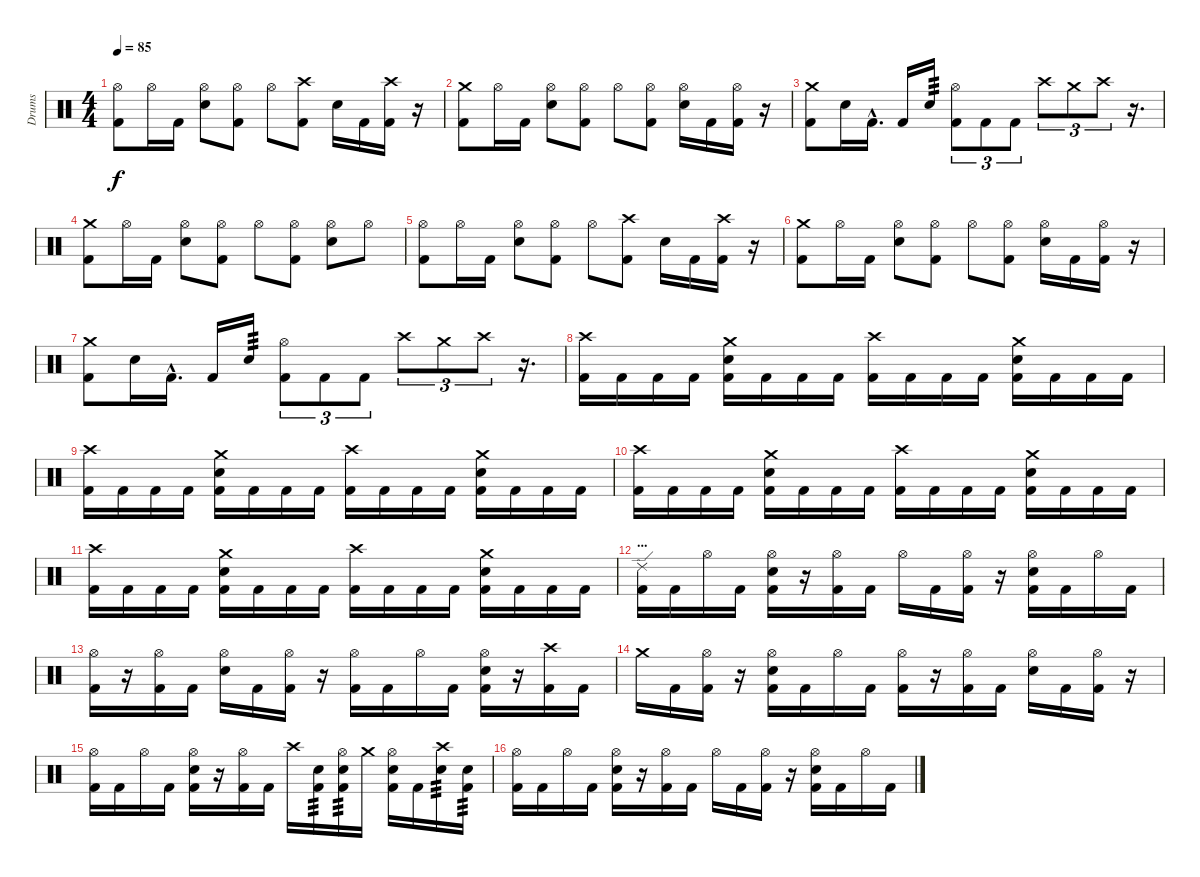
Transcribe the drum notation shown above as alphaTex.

\track ("Drums" "Drums") {instrument percussion}
\staff {score}
\articulation defaults
\ts (4 4)
\tempo 85
\clef neutral
\ks c
("Hi-Hat (open)" "Kick (hit) 2").8{dy f} "Hi-Hat (open)".16 "Kick (hit) 2".16 ("Hi-Hat (open)" "Snare (hit) 2").8 ("Hi-Hat (open)" "Kick (hit) 2").8 "Hi-Hat (open)".8 ("Crash high (hit)" "Kick (hit) 2").8 "Snare (hit) 2".16 "Kick (hit) 2".16 ("Crash high (hit)" "Kick (hit) 2").16 r.16 |
("Crash medium (hit)" "Kick (hit) 2").8 "Hi-Hat (open)".16 "Kick (hit) 2".16 ("Hi-Hat (open)" "Snare (hit) 2").8 ("Hi-Hat (open)" "Kick (hit) 2").8 "Hi-Hat (open)".8 ("Hi-Hat (open)" "Kick (hit) 2").8 ("Hi-Hat (open)" "Snare (hit) 2").16 "Kick (hit) 2".16 ("Hi-Hat (open)" "Kick (hit) 2").16 r.16 |
("Crash medium (hit)" "Kick (hit) 2").8 "Snare (hit) 2".16 "Kick (hit) 2"{hac}.16{d} "Kick (hit) 2".16 "Snare (hit) 2".16{tp 3} ("Hi-Hat (open)" "Kick (hit) 2").8{tu (3 2)} "Kick (hit) 2".8{tu (3 2)} "Kick (hit) 2".8{tu (3 2)} "Crash high (hit)".8{tu (3 2)} "Crash medium (hit)".8{tu (3 2)} "Crash high (hit)".8{tu (3 2)} r.16{d} |
("Crash medium (hit)" "Kick (hit) 2").8 "Hi-Hat (open)".16 "Kick (hit) 2".16 ("Hi-Hat (open)" "Snare (hit) 2").8 ("Hi-Hat (open)" "Kick (hit) 2").8 "Hi-Hat (open)".8 ("Hi-Hat (open)" "Kick (hit) 2").8 ("Hi-Hat (open)" "Snare (hit) 2").8 "Hi-Hat (open)".8 |
("Hi-Hat (open)" "Kick (hit) 2").8 "Hi-Hat (open)".16 "Kick (hit) 2".16 ("Hi-Hat (open)" "Snare (hit) 2").8 ("Hi-Hat (open)" "Kick (hit) 2").8 "Hi-Hat (open)".8 ("Crash high (hit)" "Kick (hit) 2").8 "Snare (hit) 2".16 "Kick (hit) 2".16 ("Crash high (hit)" "Kick (hit) 2").16 r.16 |
("Crash medium (hit)" "Kick (hit) 2").8 "Hi-Hat (open)".16 "Kick (hit) 2".16 ("Hi-Hat (open)" "Snare (hit) 2").8 ("Hi-Hat (open)" "Kick (hit) 2").8 "Hi-Hat (open)".8 ("Hi-Hat (open)" "Kick (hit) 2").8 ("Hi-Hat (open)" "Snare (hit) 2").16 "Kick (hit) 2".16 ("Hi-Hat (open)" "Kick (hit) 2").16 r.16 |
("Crash medium (hit)" "Kick (hit) 2").8 "Snare (hit) 2".16 "Kick (hit) 2"{hac}.16{d} "Kick (hit) 2".16 "Snare (hit) 2".16{tp 3} ("Hi-Hat (open)" "Kick (hit) 2").8{tu (3 2)} "Kick (hit) 2".8{tu (3 2)} "Kick (hit) 2".8{tu (3 2)} "Crash high (hit)".8{tu (3 2)} "Crash medium (hit)".8{tu (3 2)} "Crash high (hit)".8{tu (3 2)} r.16{d} |
("Crash high (hit)" "Kick (hit) 2").16 "Kick (hit) 2".16 "Kick (hit) 2".16 "Kick (hit) 2".16 ("Crash medium (hit)" "Snare (hit) 2" "Kick (hit) 2").16 "Kick (hit) 2".16 "Kick (hit) 2".16 "Kick (hit) 2".16 ("Crash high (hit)" "Kick (hit) 2").16 "Kick (hit) 2".16 "Kick (hit) 2".16 "Kick (hit) 2".16 ("Crash medium (hit)" "Snare (hit) 2" "Kick (hit) 2").16 "Kick (hit) 2".16 "Kick (hit) 2".16 "Kick (hit) 2".16 |
("Crash high (hit)" "Kick (hit) 2").16 "Kick (hit) 2".16 "Kick (hit) 2".16 "Kick (hit) 2".16 ("Crash medium (hit)" "Snare (hit) 2" "Kick (hit) 2").16 "Kick (hit) 2".16 "Kick (hit) 2".16 "Kick (hit) 2".16 ("Crash high (hit)" "Kick (hit) 2").16 "Kick (hit) 2".16 "Kick (hit) 2".16 "Kick (hit) 2".16 ("Crash medium (hit)" "Snare (hit) 2" "Kick (hit) 2").16 "Kick (hit) 2".16 "Kick (hit) 2".16 "Kick (hit) 2".16 |
("Crash high (hit)" "Kick (hit) 2").16 "Kick (hit) 2".16 "Kick (hit) 2".16 "Kick (hit) 2".16 ("Crash medium (hit)" "Snare (hit) 2" "Kick (hit) 2").16 "Kick (hit) 2".16 "Kick (hit) 2".16 "Kick (hit) 2".16 ("Crash high (hit)" "Kick (hit) 2").16 "Kick (hit) 2".16 "Kick (hit) 2".16 "Kick (hit) 2".16 ("Crash medium (hit)" "Snare (hit) 2" "Kick (hit) 2").16 "Kick (hit) 2".16 "Kick (hit) 2".16 "Kick (hit) 2".16 |
("Crash high (hit)" "Kick (hit) 2").16 "Kick (hit) 2".16 "Kick (hit) 2".16 "Kick (hit) 2".16 ("Crash medium (hit)" "Snare (hit) 2" "Kick (hit) 2").16 "Kick (hit) 2".16 "Kick (hit) 2".16 "Kick (hit) 2".16 ("Crash high (hit)" "Kick (hit) 2").16 "Kick (hit) 2".16 "Kick (hit) 2".16 "Kick (hit) 2".16 ("Crash medium (hit)" "Snare (hit) 2" "Kick (hit) 2").16 "Kick (hit) 2".16 "Kick (hit) 2".16 "Kick (hit) 2".16 |
\section ("" "...")
("Ride (edge) 2" "Kick (hit) 2").16 "Kick (hit) 2".16 "Hi-Hat (open)".16 "Kick (hit) 2".16 ("Hi-Hat (open)" "Snare (hit) 2" "Kick (hit) 2").16 r.16 ("Hi-Hat (open)" "Kick (hit) 2").16 "Kick (hit) 2".16 "Hi-Hat (open)".16 "Kick (hit) 2".16 ("Hi-Hat (open)" "Kick (hit) 2").16 r.16 ("Hi-Hat (open)" "Snare (hit) 2" "Kick (hit) 2").16 "Kick (hit) 2".16 "Hi-Hat (open)".16 "Kick (hit) 2".16 |
("Hi-Hat (open)" "Kick (hit) 2").16 r.16 ("Hi-Hat (open)" "Kick (hit) 2").16 "Kick (hit) 2".16 ("Hi-Hat (open)" "Snare (hit) 2").16 "Kick (hit) 2".16 ("Hi-Hat (open)" "Kick (hit) 2").16 r.16 ("Hi-Hat (open)" "Kick (hit) 2").16 "Kick (hit) 2".16 "Hi-Hat (open)".16 "Kick (hit) 2".16 ("Hi-Hat (open)" "Snare (hit) 2" "Kick (hit) 2").16 r.16 ("Crash high (hit)" "Kick (hit) 2").16 "Kick (hit) 2".16 |
"Crash medium (hit)".16 "Kick (hit) 2".16 ("Hi-Hat (open)" "Kick (hit) 2").16 r.16 ("Hi-Hat (open)" "Snare (hit) 2" "Kick (hit) 2").16 "Kick (hit) 2".16 "Hi-Hat (open)".16 "Kick (hit) 2".16 ("Hi-Hat (open)" "Kick (hit) 2").16 r.16 ("Hi-Hat (open)" "Kick (hit) 2").16 "Kick (hit) 2".16 ("Hi-Hat (open)" "Snare (hit) 2").16 "Kick (hit) 2".16 ("Hi-Hat (open)" "Kick (hit) 2").16 r.16 |
("Hi-Hat (open)" "Kick (hit) 2").16 "Kick (hit) 2".16 "Hi-Hat (open)".16 "Kick (hit) 2".16 ("Hi-Hat (open)" "Snare (hit) 2" "Kick (hit) 2").16 r.16 ("Hi-Hat (open)" "Kick (hit) 2").16 "Kick (hit) 2".16 "Crash high (hit)".16 ("Snare (hit) 2" "Kick (hit) 2").16{tp 3} ("Hi-Hat (open)" "Snare (hit) 2" "Kick (hit) 2").16{tp 3} "Crash medium (hit)".16 ("Hi-Hat (open)" "Snare (hit) 2" "Kick (hit) 2").16 "Kick (hit) 2".16 ("Crash high (hit)" "Snare (hit) 2").16{tp 3} ("Snare (hit) 2" "Kick (hit) 2").16{tp 3} |
("Hi-Hat (open)" "Kick (hit) 2").16 "Kick (hit) 2".16 "Hi-Hat (open)".16 "Kick (hit) 2".16 ("Hi-Hat (open)" "Snare (hit) 2" "Kick (hit) 2").16 r.16 ("Hi-Hat (open)" "Kick (hit) 2").16 "Kick (hit) 2".16 "Hi-Hat (open)".16 "Kick (hit) 2".16 ("Hi-Hat (open)" "Kick (hit) 2").16 r.16 ("Hi-Hat (open)" "Snare (hit) 2" "Kick (hit) 2").16 "Kick (hit) 2".16 "Hi-Hat (open)".16 "Kick (hit) 2".16
